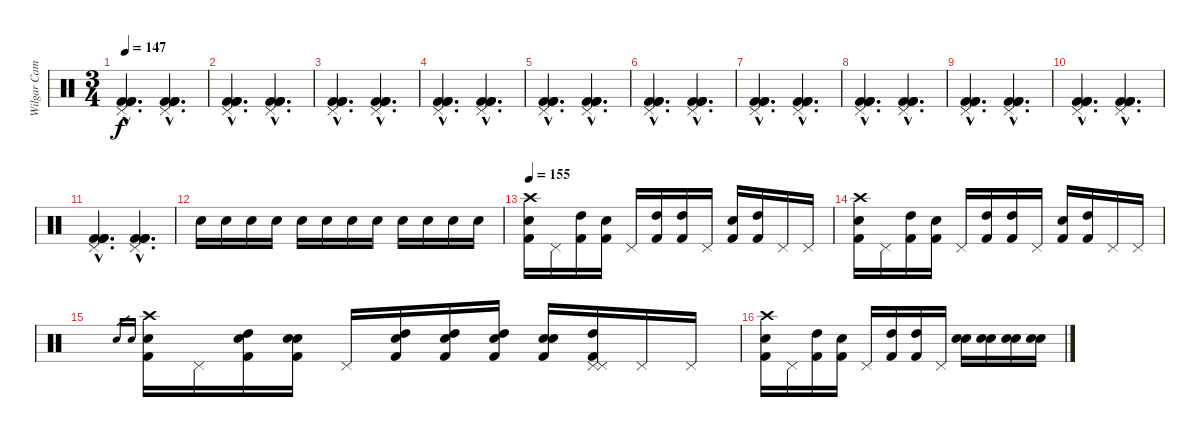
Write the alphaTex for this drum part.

\track ("Wilgar Campbell" "Wilgar Cam") {instrument percussion}
\staff {score}
\articulation defaults
\ts (3 4)
\tempo 147
\clef neutral
\ks c
("Kick (hit) 2"{hac} "Pedal Hi-Hat (hit)"{hac} "Kick (hit) 2"{hac} "Kick (hit) 2"{hac}).4{d dy f} ("Kick (hit) 2"{hac} "Pedal Hi-Hat (hit)"{hac} "Kick (hit) 2"{hac} "Kick (hit) 2"{hac}).4{d} |
("Kick (hit) 2"{hac} "Pedal Hi-Hat (hit)"{hac} "Kick (hit) 2"{hac} "Kick (hit) 2"{hac}).4{d} ("Kick (hit) 2"{hac} "Pedal Hi-Hat (hit)"{hac} "Kick (hit) 2"{hac} "Kick (hit) 2"{hac}).4{d} |
("Kick (hit) 2"{hac} "Pedal Hi-Hat (hit)"{hac} "Kick (hit) 2"{hac} "Kick (hit) 2"{hac}).4{d} ("Kick (hit) 2"{hac} "Pedal Hi-Hat (hit)"{hac} "Kick (hit) 2"{hac} "Kick (hit) 2"{hac}).4{d} |
("Kick (hit) 2"{hac} "Pedal Hi-Hat (hit)"{hac} "Kick (hit) 2"{hac} "Kick (hit) 2"{hac}).4{d} ("Kick (hit) 2"{hac} "Pedal Hi-Hat (hit)"{hac} "Kick (hit) 2"{hac} "Kick (hit) 2"{hac}).4{d} |
("Kick (hit) 2"{hac} "Pedal Hi-Hat (hit)"{hac} "Kick (hit) 2"{hac} "Kick (hit) 2"{hac}).4{d} ("Kick (hit) 2"{hac} "Pedal Hi-Hat (hit)"{hac} "Kick (hit) 2"{hac} "Kick (hit) 2"{hac}).4{d} |
("Kick (hit) 2"{hac} "Pedal Hi-Hat (hit)"{hac} "Kick (hit) 2"{hac} "Kick (hit) 2"{hac}).4{d} ("Kick (hit) 2"{hac} "Pedal Hi-Hat (hit)"{hac} "Kick (hit) 2"{hac} "Kick (hit) 2"{hac}).4{d} |
("Kick (hit) 2"{hac} "Pedal Hi-Hat (hit)"{hac} "Kick (hit) 2"{hac} "Kick (hit) 2"{hac}).4{d} ("Kick (hit) 2"{hac} "Pedal Hi-Hat (hit)"{hac} "Kick (hit) 2"{hac} "Kick (hit) 2"{hac}).4{d} |
("Kick (hit) 2"{hac} "Pedal Hi-Hat (hit)"{hac} "Kick (hit) 2"{hac} "Kick (hit) 2"{hac}).4{d} ("Kick (hit) 2"{hac} "Pedal Hi-Hat (hit)"{hac} "Kick (hit) 2"{hac} "Kick (hit) 2"{hac}).4{d} |
("Kick (hit) 2"{hac} "Pedal Hi-Hat (hit)"{hac} "Kick (hit) 2"{hac} "Kick (hit) 2"{hac}).4{d} ("Kick (hit) 2"{hac} "Pedal Hi-Hat (hit)"{hac} "Kick (hit) 2"{hac} "Kick (hit) 2"{hac}).4{d} |
("Kick (hit) 2"{hac} "Pedal Hi-Hat (hit)"{hac} "Kick (hit) 2"{hac} "Kick (hit) 2"{hac}).4{d} ("Kick (hit) 2"{hac} "Pedal Hi-Hat (hit)"{hac} "Kick (hit) 2"{hac} "Kick (hit) 2"{hac}).4{d} |
("Kick (hit) 2"{hac} "Pedal Hi-Hat (hit)"{hac} "Kick (hit) 2"{hac} "Kick (hit) 2"{hac}).4{d} ("Kick (hit) 2"{hac} "Pedal Hi-Hat (hit)"{hac} "Kick (hit) 2"{hac} "Kick (hit) 2"{hac}).4{d} |
"Electric Snare (hit)".16 "Electric Snare (hit)".16 "Electric Snare (hit)".16 "Electric Snare (hit)".16 "Electric Snare (hit)".16 "Electric Snare (hit)".16 "Electric Snare (hit)".16 "Electric Snare (hit)".16 "Electric Snare (hit)".16 "Electric Snare (hit)".16 "Electric Snare (hit)".16 "Electric Snare (hit)".16 |
\tempo 155
("Kick (hit) 2" "Snare (hit) 2" "Crash high (hit)").16 "Pedal Hi-Hat (hit)".16 ("Kick (hit) 2" "High Tom (hit)").16 ("Kick (hit) 2" "Snare (hit) 2").16 "Pedal Hi-Hat (hit)".16 ("High Tom (hit)" "Kick (hit) 2").16 ("High Tom (hit)" "Kick (hit) 2").16 "Pedal Hi-Hat (hit)".16 ("Electric Snare (hit)" "Kick (hit) 2").16 ("High Tom (hit)" "Kick (hit) 2").16 "Pedal Hi-Hat (hit)".16 "Pedal Hi-Hat (hit)".16 |
("Kick (hit) 2" "Snare (hit) 2" "Crash high (hit)").16 "Pedal Hi-Hat (hit)".16 ("Kick (hit) 2" "High Tom (hit)").16 ("Kick (hit) 2" "Snare (hit) 2").16 "Pedal Hi-Hat (hit)".16 ("High Tom (hit)" "Kick (hit) 2").16 ("High Tom (hit)" "Kick (hit) 2").16 "Pedal Hi-Hat (hit)".16 ("Electric Snare (hit)" "Kick (hit) 2").16 ("High Tom (hit)" "Kick (hit) 2").16 "Pedal Hi-Hat (hit)".16 "Pedal Hi-Hat (hit)".16 |
"Electric Snare (hit)".16{gr} "Electric Snare (hit)".16{gr} ("Kick (hit) 2" "Snare (hit) 2" "Crash high (hit)").16 "Pedal Hi-Hat (hit)".16 ("Electric Snare (hit)" "Kick (hit) 2" "High Tom (hit)").16 ("Electric Snare (hit)" "Kick (hit) 2" "Snare (hit) 2").16 "Pedal Hi-Hat (hit)".16 ("Electric Snare (hit)" "High Tom (hit)" "Kick (hit) 2").16 ("Electric Snare (hit)" "High Tom (hit)" "Kick (hit) 2").16 ("Electric Snare (hit)" "High Tom (hit)" "Kick (hit) 2").16 ("Electric Snare (hit)" "Electric Snare (hit)" "Kick (hit) 2").16 ("Kick (hit) 2" "Pedal Hi-Hat (hit)" "High Tom (hit)" "Pedal Hi-Hat (hit)").16 "Pedal Hi-Hat (hit)".16 "Pedal Hi-Hat (hit)".16 |
("Kick (hit) 2" "Snare (hit) 2" "Crash high (hit)").16 "Pedal Hi-Hat (hit)".16 ("Kick (hit) 2" "High Tom (hit)").16 ("Kick (hit) 2" "Snare (hit) 2").16 "Pedal Hi-Hat (hit)".16 ("High Tom (hit)" "Kick (hit) 2").16 ("High Tom (hit)" "Kick (hit) 2").16 "Pedal Hi-Hat (hit)".16 ("Electric Snare (hit)" "Electric Snare (hit)").16 ("Electric Snare (hit)" "Electric Snare (hit)").16 ("Electric Snare (hit)" "Electric Snare (hit)").16 ("Electric Snare (hit)" "Electric Snare (hit)").16
